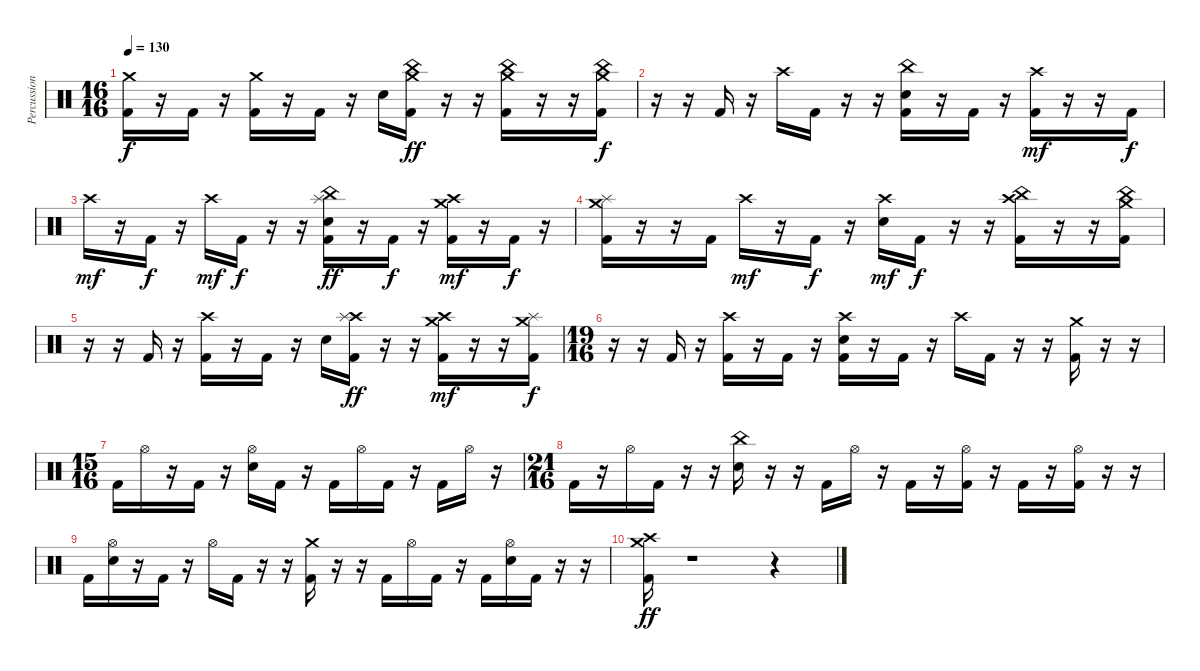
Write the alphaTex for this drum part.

\track ("Percussions" "Percussion") {instrument percussion}
\staff {score}
\articulation defaults
\ts (16 16)
\tempo 130
\clef neutral
\ks c
("Crash medium (hit)" "Kick (hit) 2").16{dy f} r.16 "Kick (hit) 2".16 r.16 ("Crash medium (hit)" "Kick (hit) 2").16 r.16 "Kick (hit) 2".16 r.16 "Electric Snare (hit)".16 ("Crash medium (hit)" "China (hit)" "Kick (hit) 2").16{dy ff} r.16 r.16 ("Crash medium (hit)" "China (hit)" "Kick (hit) 2").16 r.16 r.16 ("Crash medium (hit)" "China (hit)" "Kick (hit) 2").16{dy f} |
r.16 r.16 "Kick (hit) 2".16 r.16 "Crash high (hit)".16 "Kick (hit) 2".16 r.16 r.16 ("China (hit)" "Electric Snare (hit)" "Kick (hit) 2").16 r.16 "Kick (hit) 2".16 r.16 ("Crash high (hit)" "Kick (hit) 2").16{dy mf} r.16 r.16 "Kick (hit) 2".16{dy f} |
"Crash high (hit)".16{dy mf} r.16 "Kick (hit) 2".16{dy f} r.16 "Crash high (hit)".16{dy mf} "Kick (hit) 2".16{dy f} r.16 r.16 ("China (hit)" "Splash (hit)" "Electric Snare (hit)" "Kick (hit) 2").16{dy ff} r.16 "Kick (hit) 2".16{dy f} r.16 ("Crash medium (hit)" "Crash high (hit)" "Kick (hit) 2").16{dy mf} r.16 "Kick (hit) 2".16{dy f} r.16 |
("Crash medium (hit)" "Splash (hit)" "Kick (hit) 2").16 r.16 r.16 "Kick (hit) 2".16 "Crash high (hit)".16{dy mf} r.16 "Kick (hit) 2".16{dy f} r.16 ("Crash high (hit)" "Electric Snare (hit)").16{dy mf} "Kick (hit) 2".16{dy f} r.16 r.16 ("Crash high (hit)" "China (hit)" "Kick (hit) 2").16 r.16 r.16 ("Crash medium (hit)" "China (hit)" "Kick (hit) 2").16 |
r.16 r.16 "Kick (hit) 2".16 r.16 ("Crash high (hit)" "Kick (hit) 2").16 r.16 "Kick (hit) 2".16 r.16 "Electric Snare (hit)".16 ("Crash high (hit)" "Splash (hit)" "Kick (hit) 2").16{dy ff} r.16 r.16 ("Crash high (hit)" "Crash medium (hit)" "Kick (hit) 2").16{dy mf} r.16 r.16 ("Splash (hit)" "Crash medium (hit)" "Kick (hit) 2").16{dy f} |
\ts (19 16)
r.16 r.16 "Kick (hit) 2".16 r.16 ("Crash high (hit)" "Kick (hit) 2").16 r.16 "Kick (hit) 2".16 r.16 ("Crash high (hit)" "Electric Snare (hit)" "Kick (hit) 2").16 r.16 "Kick (hit) 2".16 r.16 "Crash high (hit)".16 "Kick (hit) 2".16 r.16 r.16 ("Crash medium (hit)" "Kick (hit) 2").16 r.16 r.16 |
\ts (15 16)
"Kick (hit) 2".16 "Hi-Hat (open)".16 r.16 "Kick (hit) 2".16 r.16 ("Hi-Hat (open)" "Electric Snare (hit)").16 "Kick (hit) 2".16 r.16 "Kick (hit) 2".16 "Hi-Hat (open)".16 "Kick (hit) 2".16 r.16 "Kick (hit) 2".16 "Hi-Hat (open)".16 r.16 |
\ts (21 16)
"Kick (hit) 2".16 r.16 "Hi-Hat (open)".16 "Kick (hit) 2".16 r.16 r.16 ("China (hit)" "Electric Snare (hit)").16 r.16 r.16 "Kick (hit) 2".16 "Hi-Hat (open)".16 r.16 "Kick (hit) 2".16 r.16 ("Hi-Hat (open)" "Kick (hit) 2").16 r.16 "Kick (hit) 2".16 r.16 ("Hi-Hat (open)" "Kick (hit) 2").16 r.16 r.16 |
"Kick (hit) 2".16 ("Hi-Hat (open)" "Electric Snare (hit)").16 r.16 "Kick (hit) 2".16 r.16 "Hi-Hat (open)".16 "Kick (hit) 2".16 r.16 r.16 ("Crash medium (hit)" "Kick (hit) 2").16 r.16 r.16 "Kick (hit) 2".16 "Hi-Hat (open)".16 "Kick (hit) 2".16 r.16 "Kick (hit) 2".16 ("Hi-Hat (open)" "Electric Snare (hit)").16 "Kick (hit) 2".16 r.16 r.16 |
("Crash medium (hit)" "Crash high (hit)" "Kick (hit) 2").16{dy ff} r.1 r.4
